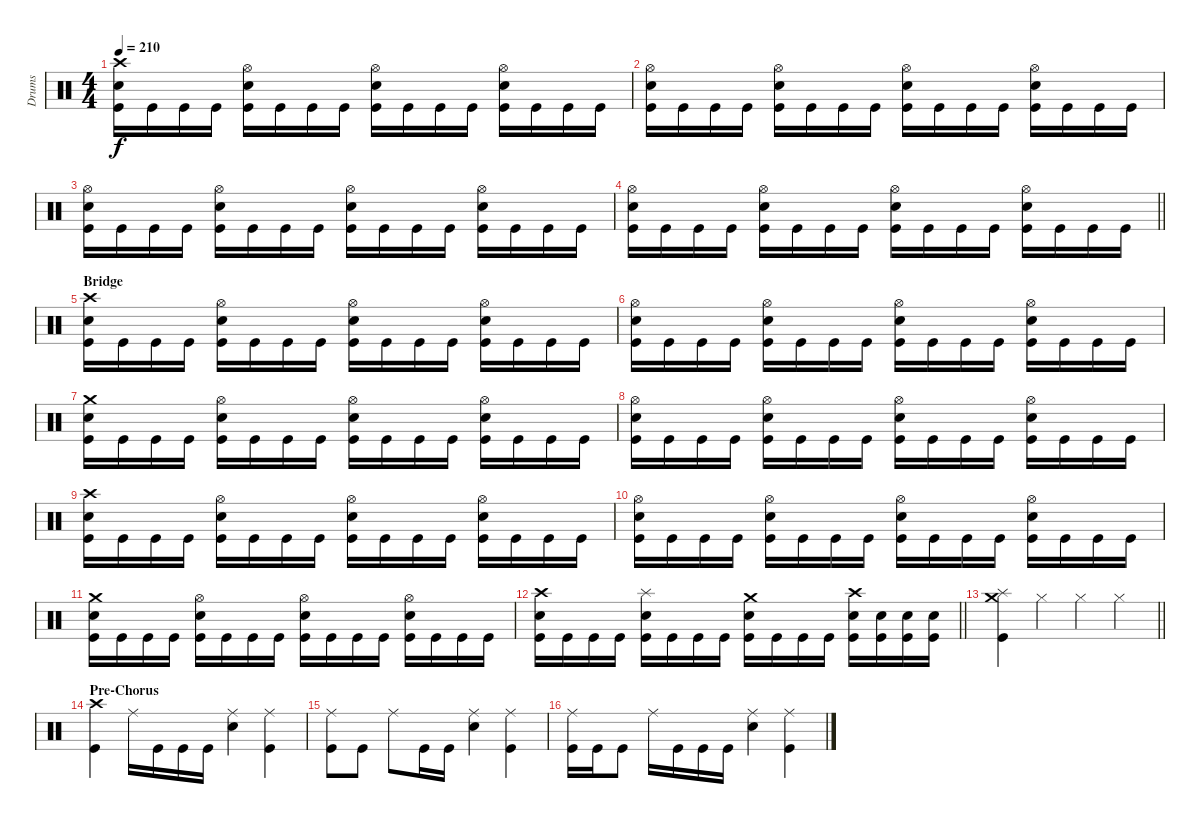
\track ("Drums" "Drums") {instrument percussion}
\staff {score}
\articulation defaults
\ts (4 4)
\tempo 210
\clef neutral
\ks c
("Crash high (hit)" "Electric Snare (hit)" "Kick (hit)").16{dy f} "Kick (hit)".16 "Kick (hit)".16 "Kick (hit)".16 ("Hi-Hat (open)" "Electric Snare (hit)" "Kick (hit)").16 "Kick (hit)".16 "Kick (hit)".16 "Kick (hit)".16 ("Hi-Hat (open)" "Electric Snare (hit)" "Kick (hit)").16 "Kick (hit)".16 "Kick (hit)".16 "Kick (hit)".16 ("Hi-Hat (open)" "Electric Snare (hit)" "Kick (hit)").16 "Kick (hit)".16 "Kick (hit)".16 "Kick (hit)".16 |
("Hi-Hat (open)" "Electric Snare (hit)" "Kick (hit)").16 "Kick (hit)".16 "Kick (hit)".16 "Kick (hit)".16 ("Hi-Hat (open)" "Electric Snare (hit)" "Kick (hit)").16 "Kick (hit)".16 "Kick (hit)".16 "Kick (hit)".16 ("Hi-Hat (open)" "Electric Snare (hit)" "Kick (hit)").16 "Kick (hit)".16 "Kick (hit)".16 "Kick (hit)".16 ("Hi-Hat (open)" "Electric Snare (hit)" "Kick (hit)").16 "Kick (hit)".16 "Kick (hit)".16 "Kick (hit)".16 |
("Hi-Hat (open)" "Electric Snare (hit)" "Kick (hit)").16 "Kick (hit)".16 "Kick (hit)".16 "Kick (hit)".16 ("Hi-Hat (open)" "Electric Snare (hit)" "Kick (hit)").16 "Kick (hit)".16 "Kick (hit)".16 "Kick (hit)".16 ("Hi-Hat (open)" "Electric Snare (hit)" "Kick (hit)").16 "Kick (hit)".16 "Kick (hit)".16 "Kick (hit)".16 ("Hi-Hat (open)" "Electric Snare (hit)" "Kick (hit)").16 "Kick (hit)".16 "Kick (hit)".16 "Kick (hit)".16 |
\barLineRight lightlight
("Hi-Hat (open)" "Electric Snare (hit)" "Kick (hit)").16 "Kick (hit)".16 "Kick (hit)".16 "Kick (hit)".16 ("Hi-Hat (open)" "Electric Snare (hit)" "Kick (hit)").16 "Kick (hit)".16 "Kick (hit)".16 "Kick (hit)".16 ("Hi-Hat (open)" "Electric Snare (hit)" "Kick (hit)").16 "Kick (hit)".16 "Kick (hit)".16 "Kick (hit)".16 ("Hi-Hat (open)" "Electric Snare (hit)" "Kick (hit)").16 "Kick (hit)".16 "Kick (hit)".16 "Kick (hit)".16 |
\section ("" "Bridge")
("Crash high (hit)" "Electric Snare (hit)" "Kick (hit)").16 "Kick (hit)".16 "Kick (hit)".16 "Kick (hit)".16 ("Hi-Hat (open)" "Electric Snare (hit)" "Kick (hit)").16 "Kick (hit)".16 "Kick (hit)".16 "Kick (hit)".16 ("Hi-Hat (open)" "Electric Snare (hit)" "Kick (hit)").16 "Kick (hit)".16 "Kick (hit)".16 "Kick (hit)".16 ("Hi-Hat (open)" "Electric Snare (hit)" "Kick (hit)").16 "Kick (hit)".16 "Kick (hit)".16 "Kick (hit)".16 |
("Hi-Hat (open)" "Electric Snare (hit)" "Kick (hit)").16 "Kick (hit)".16 "Kick (hit)".16 "Kick (hit)".16 ("Hi-Hat (open)" "Electric Snare (hit)" "Kick (hit)").16 "Kick (hit)".16 "Kick (hit)".16 "Kick (hit)".16 ("Hi-Hat (open)" "Electric Snare (hit)" "Kick (hit)").16 "Kick (hit)".16 "Kick (hit)".16 "Kick (hit)".16 ("Hi-Hat (open)" "Electric Snare (hit)" "Kick (hit)").16 "Kick (hit)".16 "Kick (hit)".16 "Kick (hit)".16 |
("Crash medium (hit)" "Electric Snare (hit)" "Kick (hit)").16 "Kick (hit)".16 "Kick (hit)".16 "Kick (hit)".16 ("Hi-Hat (open)" "Electric Snare (hit)" "Kick (hit)").16 "Kick (hit)".16 "Kick (hit)".16 "Kick (hit)".16 ("Hi-Hat (open)" "Electric Snare (hit)" "Kick (hit)").16 "Kick (hit)".16 "Kick (hit)".16 "Kick (hit)".16 ("Hi-Hat (open)" "Electric Snare (hit)" "Kick (hit)").16 "Kick (hit)".16 "Kick (hit)".16 "Kick (hit)".16 |
("Hi-Hat (open)" "Electric Snare (hit)" "Kick (hit)").16 "Kick (hit)".16 "Kick (hit)".16 "Kick (hit)".16 ("Hi-Hat (open)" "Electric Snare (hit)" "Kick (hit)").16 "Kick (hit)".16 "Kick (hit)".16 "Kick (hit)".16 ("Hi-Hat (open)" "Electric Snare (hit)" "Kick (hit)").16 "Kick (hit)".16 "Kick (hit)".16 "Kick (hit)".16 ("Hi-Hat (open)" "Electric Snare (hit)" "Kick (hit)").16 "Kick (hit)".16 "Kick (hit)".16 "Kick (hit)".16 |
("Crash high (hit)" "Electric Snare (hit)" "Kick (hit)").16 "Kick (hit)".16 "Kick (hit)".16 "Kick (hit)".16 ("Hi-Hat (open)" "Electric Snare (hit)" "Kick (hit)").16 "Kick (hit)".16 "Kick (hit)".16 "Kick (hit)".16 ("Hi-Hat (open)" "Electric Snare (hit)" "Kick (hit)").16 "Kick (hit)".16 "Kick (hit)".16 "Kick (hit)".16 ("Hi-Hat (open)" "Electric Snare (hit)" "Kick (hit)").16 "Kick (hit)".16 "Kick (hit)".16 "Kick (hit)".16 |
("Hi-Hat (open)" "Electric Snare (hit)" "Kick (hit)").16 "Kick (hit)".16 "Kick (hit)".16 "Kick (hit)".16 ("Hi-Hat (open)" "Electric Snare (hit)" "Kick (hit)").16 "Kick (hit)".16 "Kick (hit)".16 "Kick (hit)".16 ("Hi-Hat (open)" "Electric Snare (hit)" "Kick (hit)").16 "Kick (hit)".16 "Kick (hit)".16 "Kick (hit)".16 ("Hi-Hat (open)" "Electric Snare (hit)" "Kick (hit)").16 "Kick (hit)".16 "Kick (hit)".16 "Kick (hit)".16 |
("Crash medium (hit)" "Electric Snare (hit)" "Kick (hit)").16 "Kick (hit)".16 "Kick (hit)".16 "Kick (hit)".16 ("Hi-Hat (open)" "Electric Snare (hit)" "Kick (hit)").16 "Kick (hit)".16 "Kick (hit)".16 "Kick (hit)".16 ("Hi-Hat (open)" "Electric Snare (hit)" "Kick (hit)").16 "Kick (hit)".16 "Kick (hit)".16 "Kick (hit)".16 ("Hi-Hat (open)" "Electric Snare (hit)" "Kick (hit)").16 "Kick (hit)".16 "Kick (hit)".16 "Kick (hit)".16 |
\barLineRight lightlight
("Crash high (hit)" "Electric Snare (hit)" "Kick (hit)").16 "Kick (hit)".16 "Kick (hit)".16 "Kick (hit)".16 ("Splash (hit)" "Electric Snare (hit)" "Kick (hit)").16 "Kick (hit)".16 "Kick (hit)".16 "Kick (hit)".16 ("Crash medium (hit)" "Electric Snare (hit)" "Kick (hit)").16 "Kick (hit)".16 "Kick (hit)".16 "Kick (hit)".16 ("Crash high (hit)" "Electric Snare (hit)" "Kick (hit)").16 ("Electric Snare (hit)" "Kick (hit)").16 ("Electric Snare (hit)" "Kick (hit)").16 ("Electric Snare (hit)" "Kick (hit)").16 |
\barLineRight lightlight
("Crash medium (hit)" "Splash (hit)" "Kick (hit)").4 "Hi-Hat (closed)".4 "Hi-Hat (closed)".4 "Hi-Hat (closed)".4 |
\section ("" "Pre-Chorus")
("Crash high (hit)" "Kick (hit)").4 "Ride (middle)".16 "Kick (hit)".16 "Kick (hit)".16 "Kick (hit)".16 ("Ride (middle)" "Electric Snare (hit)").4 ("Ride (middle)" "Kick (hit)").4 |
("Ride (middle)" "Kick (hit)").8 "Kick (hit)".8 "Ride (middle)".8 "Kick (hit)".16 "Kick (hit)".16 ("Ride (middle)" "Electric Snare (hit)").4 ("Ride (middle)" "Kick (hit)").4 |
("Ride (middle)" "Kick (hit)").16 "Kick (hit)".16 "Kick (hit)".8 "Ride (middle)".16 "Kick (hit)".16 "Kick (hit)".16 "Kick (hit)".16 ("Ride (middle)" "Electric Snare (hit)").4 ("Ride (middle)" "Kick (hit)").4
